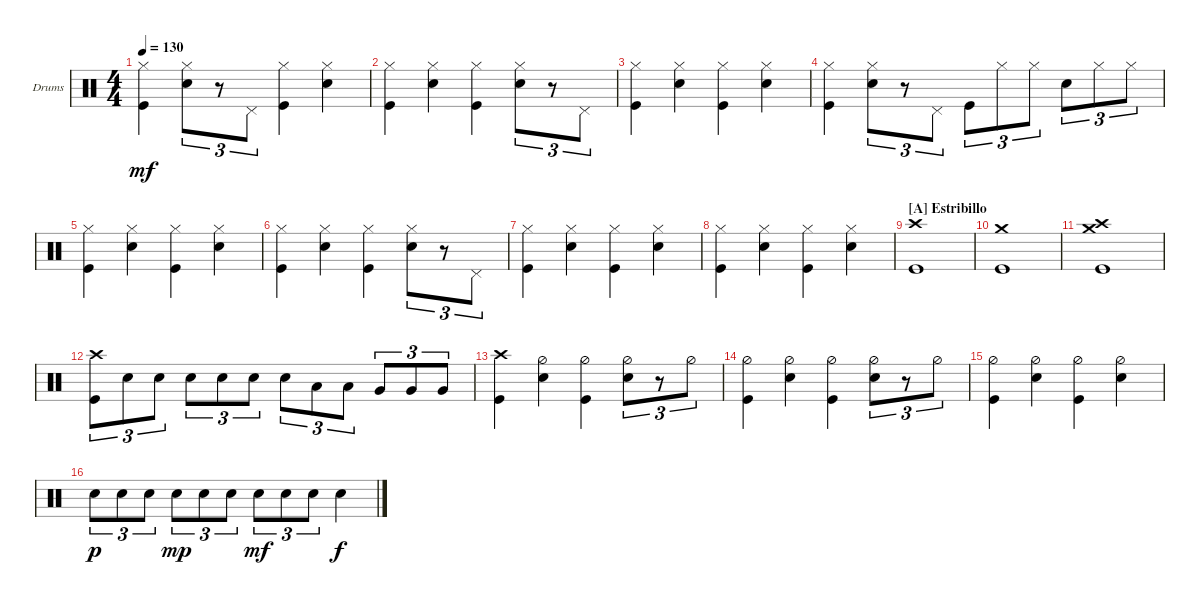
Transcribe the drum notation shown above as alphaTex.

\bracketExtendMode groupsimilarinstruments
\firstSystemTrackNameOrientation horizontal
\otherSystemsTrackNameOrientation horizontal
\track ("Drums Ghoul" "Drums") {instrument percussion}
\staff {score}
\articulation defaults
\ts (4 4)
\tempo 130
\clef neutral
\ks c
("Kick (hit)" "Hi-Hat (closed)").4{dy mf} ("Snare (hit) 2" "Hi-Hat (closed)").8{tu (3 2)} r.8{tu (3 2)} "Pedal Hi-Hat (hit)".8{tu (3 2)} ("Kick (hit)" "Hi-Hat (closed)").4 ("Snare (hit) 2" "Hi-Hat (closed)").4 |
("Kick (hit)" "Hi-Hat (closed)").4 ("Snare (hit) 2" "Hi-Hat (closed)").4 ("Kick (hit)" "Hi-Hat (closed)").4 ("Snare (hit) 2" "Hi-Hat (closed)").8{tu (3 2)} r.8{tu (3 2)} "Pedal Hi-Hat (hit)".8{tu (3 2)} |
("Kick (hit)" "Hi-Hat (closed)").4 ("Snare (hit) 2" "Hi-Hat (closed)").4 ("Kick (hit)" "Hi-Hat (closed)").4 ("Snare (hit) 2" "Hi-Hat (closed)").4 |
("Kick (hit)" "Hi-Hat (closed)").4 ("Snare (hit) 2" "Hi-Hat (closed)").8{tu (3 2)} r.8{tu (3 2)} "Pedal Hi-Hat (hit)".8{tu (3 2)} "Kick (hit)".8{tu (3 2)} "Hi-Hat (closed)".8{tu (3 2)} "Hi-Hat (closed)".8{tu (3 2)} "Snare (hit) 2".8{tu (3 2)} "Hi-Hat (closed)".8{tu (3 2)} "Hi-Hat (closed)".8{tu (3 2)} |
("Kick (hit)" "Hi-Hat (closed)").4 ("Snare (hit) 2" "Hi-Hat (closed)").4 ("Kick (hit)" "Hi-Hat (closed)").4 ("Snare (hit) 2" "Hi-Hat (closed)").4 |
("Kick (hit)" "Hi-Hat (closed)").4 ("Snare (hit) 2" "Hi-Hat (closed)").4 ("Kick (hit)" "Hi-Hat (closed)").4 ("Snare (hit) 2" "Hi-Hat (closed)").8{tu (3 2)} r.8{tu (3 2)} "Pedal Hi-Hat (hit)".8{tu (3 2)} |
("Kick (hit)" "Hi-Hat (closed)").4 ("Snare (hit) 2" "Hi-Hat (closed)").4 ("Kick (hit)" "Hi-Hat (closed)").4 ("Snare (hit) 2" "Hi-Hat (closed)").4 |
("Kick (hit)" "Hi-Hat (closed)").4 ("Snare (hit) 2" "Hi-Hat (closed)").4 ("Kick (hit)" "Hi-Hat (closed)").4 ("Snare (hit) 2" "Hi-Hat (closed)").4 |
\section ("A" "Estribillo")
("Kick (hit)" "Crash high (hit)").1 |
("Crash medium (hit)" "Kick (hit)").1 |
("Kick (hit)" "Crash high (hit)" "Crash medium (hit)").1 |
("Kick (hit)" "Crash high (hit)").8{tu (3 2)} "Snare (hit) 2".8{tu (3 2)} "Snare (hit) 2".8{tu (3 2)} "Snare (hit) 2".8{tu (3 2)} "Snare (hit) 2".8{tu (3 2)} "Snare (hit) 2".8{tu (3 2)} "Snare (hit) 2".8{tu (3 2)} "Low Tom (hit)".8{tu (3 2)} "Low Tom (hit)".8{tu (3 2)} "Very Low Tom (hit)".8{tu (3 2)} "Very Low Tom (hit)".8{tu (3 2)} "Very Low Tom (hit)".8{tu (3 2)} |
("Kick (hit)" "Crash high (hit)").4 ("Snare (hit) 2" "Hi-Hat (half)").4 ("Kick (hit)" "Hi-Hat (half)").4 ("Snare (hit) 2" "Hi-Hat (half)").8{tu (3 2)} r.8{tu (3 2)} "Hi-Hat (half)".8{tu (3 2)} |
("Kick (hit)" "Hi-Hat (half)").4 ("Snare (hit) 2" "Hi-Hat (half)").4 ("Kick (hit)" "Hi-Hat (half)").4 ("Snare (hit) 2" "Hi-Hat (half)").8{tu (3 2)} r.8{tu (3 2)} "Hi-Hat (half)".8{tu (3 2)} |
("Kick (hit)" "Hi-Hat (half)").4 ("Snare (hit) 2" "Hi-Hat (half)").4 ("Kick (hit)" "Hi-Hat (half)").4 ("Snare (hit) 2" "Hi-Hat (half)").4 |
"Snare (hit) 2".8{tu (3 2) dy p} "Snare (hit) 2".8{tu (3 2)} "Snare (hit) 2".8{tu (3 2)} "Snare (hit) 2".8{tu (3 2) dy mp} "Snare (hit) 2".8{tu (3 2)} "Snare (hit) 2".8{tu (3 2)} "Snare (hit) 2".8{tu (3 2) dy mf} "Snare (hit) 2".8{tu (3 2)} "Snare (hit) 2".8{tu (3 2)} "Snare (hit) 2".4{dy f}
